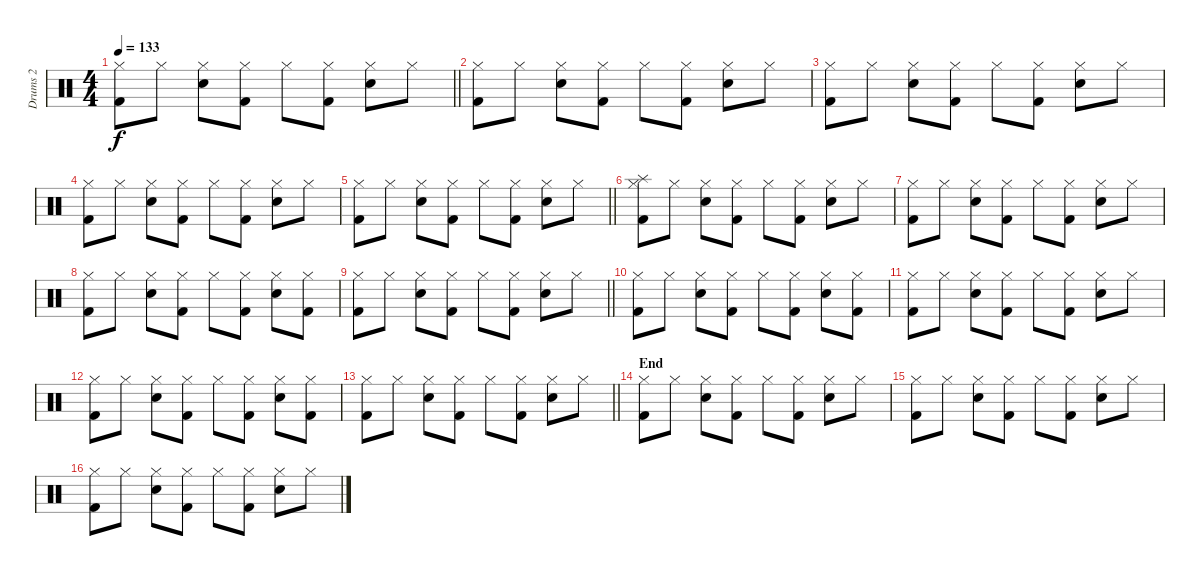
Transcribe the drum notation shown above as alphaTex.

\track ("Drums 2" "Drums 2") {instrument percussion}
\staff {score}
\articulation defaults
\ts (4 4)
\tempo 133
\clef neutral
\barLineRight lightlight
\ks c
("Hi-Hat (closed)" "Kick (hit) 2").8{dy f} "Hi-Hat (closed)".8 ("Snare (hit) 2" "Hi-Hat (closed)").8 ("Hi-Hat (closed)" "Kick (hit) 2").8 "Hi-Hat (closed)".8 ("Hi-Hat (closed)" "Kick (hit) 2").8 ("Snare (hit) 2" "Hi-Hat (closed)").8 "Hi-Hat (closed)".8 |
("Hi-Hat (closed)" "Kick (hit) 2").8 "Hi-Hat (closed)".8 ("Snare (hit) 2" "Hi-Hat (closed)").8 ("Hi-Hat (closed)" "Kick (hit) 2").8 "Hi-Hat (closed)".8 ("Hi-Hat (closed)" "Kick (hit) 2").8 ("Snare (hit) 2" "Hi-Hat (closed)").8 "Hi-Hat (closed)".8 |
("Hi-Hat (closed)" "Kick (hit) 2").8 "Hi-Hat (closed)".8 ("Snare (hit) 2" "Hi-Hat (closed)").8 ("Hi-Hat (closed)" "Kick (hit) 2").8 "Hi-Hat (closed)".8 ("Hi-Hat (closed)" "Kick (hit) 2").8 ("Snare (hit) 2" "Hi-Hat (closed)").8 "Hi-Hat (closed)".8 |
("Hi-Hat (closed)" "Kick (hit) 2").8 "Hi-Hat (closed)".8 ("Snare (hit) 2" "Hi-Hat (closed)").8 ("Hi-Hat (closed)" "Kick (hit) 2").8 "Hi-Hat (closed)".8 ("Hi-Hat (closed)" "Kick (hit) 2").8 ("Snare (hit) 2" "Hi-Hat (closed)").8 "Hi-Hat (closed)".8 |
\barLineRight lightlight
("Hi-Hat (closed)" "Kick (hit) 2").8 "Hi-Hat (closed)".8 ("Snare (hit) 2" "Hi-Hat (closed)").8 ("Hi-Hat (closed)" "Kick (hit) 2").8 "Hi-Hat (closed)".8 ("Hi-Hat (closed)" "Kick (hit) 2").8 ("Snare (hit) 2" "Hi-Hat (closed)").8 "Hi-Hat (closed)".8 |
("Splash (hit)" "Hi-Hat (closed)" "Kick (hit) 2").8 "Hi-Hat (closed)".8 ("Snare (hit) 2" "Hi-Hat (closed)").8 ("Hi-Hat (closed)" "Kick (hit) 2").8 "Hi-Hat (closed)".8 ("Hi-Hat (closed)" "Kick (hit) 2").8 ("Snare (hit) 2" "Hi-Hat (closed)").8 "Hi-Hat (closed)".8 |
("Hi-Hat (closed)" "Kick (hit) 2").8 "Hi-Hat (closed)".8 ("Snare (hit) 2" "Hi-Hat (closed)").8 ("Hi-Hat (closed)" "Kick (hit) 2").8 "Hi-Hat (closed)".8 ("Hi-Hat (closed)" "Kick (hit) 2").8 ("Snare (hit) 2" "Hi-Hat (closed)").8 "Hi-Hat (closed)".8 |
("Hi-Hat (closed)" "Kick (hit) 2").8 "Hi-Hat (closed)".8 ("Snare (hit) 2" "Hi-Hat (closed)").8 ("Hi-Hat (closed)" "Kick (hit) 2").8 "Hi-Hat (closed)".8 ("Hi-Hat (closed)" "Kick (hit) 2").8 ("Snare (hit) 2" "Hi-Hat (closed)").8 ("Hi-Hat (closed)" "Kick (hit) 2").8 |
\barLineRight lightlight
("Hi-Hat (closed)" "Kick (hit) 2").8 "Hi-Hat (closed)".8 ("Snare (hit) 2" "Hi-Hat (closed)").8 ("Hi-Hat (closed)" "Kick (hit) 2").8 "Hi-Hat (closed)".8 ("Hi-Hat (closed)" "Kick (hit) 2").8 ("Snare (hit) 2" "Hi-Hat (closed)").8 "Hi-Hat (closed)".8 |
("Hi-Hat (closed)" "Kick (hit) 2").8 "Hi-Hat (closed)".8 ("Snare (hit) 2" "Hi-Hat (closed)").8 ("Hi-Hat (closed)" "Kick (hit) 2").8 "Hi-Hat (closed)".8 ("Hi-Hat (closed)" "Kick (hit) 2").8 ("Snare (hit) 2" "Hi-Hat (closed)").8 ("Hi-Hat (closed)" "Kick (hit) 2").8 |
("Hi-Hat (closed)" "Kick (hit) 2").8 "Hi-Hat (closed)".8 ("Snare (hit) 2" "Hi-Hat (closed)").8 ("Hi-Hat (closed)" "Kick (hit) 2").8 "Hi-Hat (closed)".8 ("Hi-Hat (closed)" "Kick (hit) 2").8 ("Snare (hit) 2" "Hi-Hat (closed)").8 "Hi-Hat (closed)".8 |
("Hi-Hat (closed)" "Kick (hit) 2").8 "Hi-Hat (closed)".8 ("Snare (hit) 2" "Hi-Hat (closed)").8 ("Hi-Hat (closed)" "Kick (hit) 2").8 "Hi-Hat (closed)".8 ("Hi-Hat (closed)" "Kick (hit) 2").8 ("Snare (hit) 2" "Hi-Hat (closed)").8 ("Hi-Hat (closed)" "Kick (hit) 2").8 |
\barLineRight lightlight
("Hi-Hat (closed)" "Kick (hit) 2").8 "Hi-Hat (closed)".8 ("Snare (hit) 2" "Hi-Hat (closed)").8 ("Hi-Hat (closed)" "Kick (hit) 2").8 "Hi-Hat (closed)".8 ("Hi-Hat (closed)" "Kick (hit) 2").8 ("Snare (hit) 2" "Hi-Hat (closed)").8 "Hi-Hat (closed)".8 |
\section ("" "End")
("Hi-Hat (closed)" "Kick (hit) 2").8 "Hi-Hat (closed)".8 ("Snare (hit) 2" "Hi-Hat (closed)").8 ("Hi-Hat (closed)" "Kick (hit) 2").8 "Hi-Hat (closed)".8 ("Hi-Hat (closed)" "Kick (hit) 2").8 ("Snare (hit) 2" "Hi-Hat (closed)").8 "Hi-Hat (closed)".8 |
("Hi-Hat (closed)" "Kick (hit) 2").8 "Hi-Hat (closed)".8 ("Snare (hit) 2" "Hi-Hat (closed)").8 ("Hi-Hat (closed)" "Kick (hit) 2").8 "Hi-Hat (closed)".8 ("Hi-Hat (closed)" "Kick (hit) 2").8 ("Snare (hit) 2" "Hi-Hat (closed)").8 "Hi-Hat (closed)".8 |
("Hi-Hat (closed)" "Kick (hit) 2").8 "Hi-Hat (closed)".8 ("Snare (hit) 2" "Hi-Hat (closed)").8 ("Hi-Hat (closed)" "Kick (hit) 2").8 "Hi-Hat (closed)".8 ("Hi-Hat (closed)" "Kick (hit) 2").8 ("Snare (hit) 2" "Hi-Hat (closed)").8 "Hi-Hat (closed)".8
